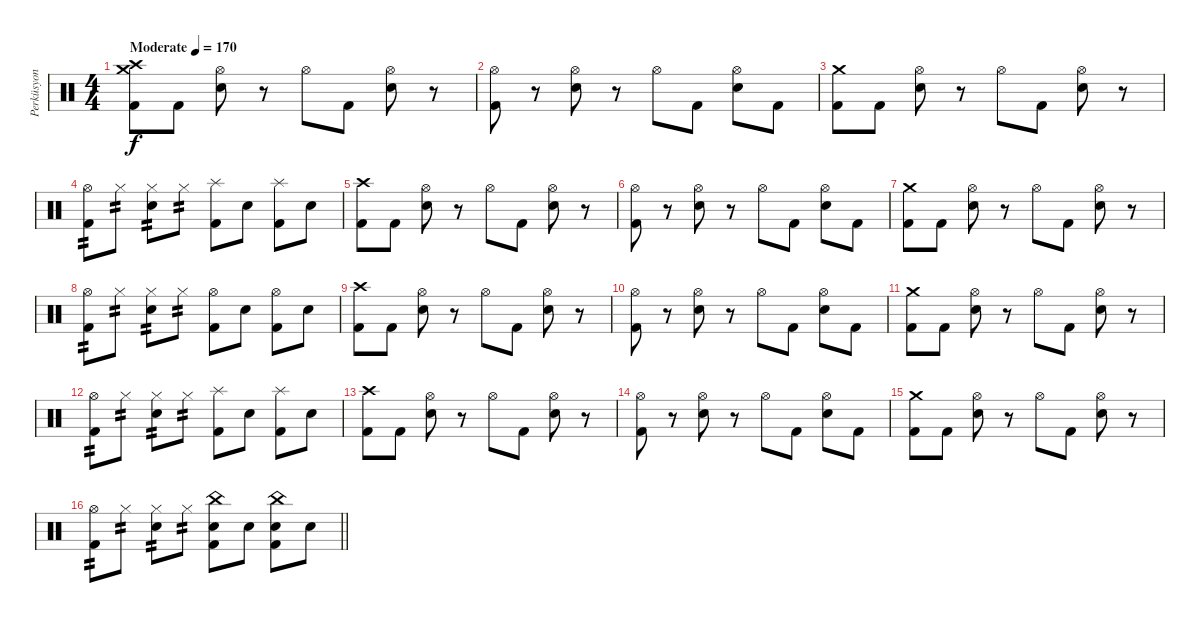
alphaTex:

\track ("Perküsyon" "Perküsyon") {instrument percussion}
\staff {score}
\articulation defaults
\ts (4 4)
\section ("" "")
\tempo (170 "Moderate")
\clef neutral
\ks c
("Crash high (hit)" "Crash medium (hit)" "Kick (hit) 2").8{dy f} "Kick (hit) 2".8 ("Hi-Hat (open)" "Snare (hit) 2").8 r.8 "Hi-Hat (open)".8 "Kick (hit) 2".8 ("Hi-Hat (open)" "Snare (hit) 2").8 r.8 |
("Hi-Hat (open)" "Kick (hit) 2").8 r.8 ("Hi-Hat (open)" "Snare (hit) 2").8 r.8 "Hi-Hat (open)".8 "Kick (hit) 2".8 ("Hi-Hat (open)" "Snare (hit) 2").8 "Kick (hit) 2".8 |
("Crash medium (hit)" "Kick (hit) 2").8 "Kick (hit) 2".8 ("Hi-Hat (open)" "Snare (hit) 2").8 r.8 "Hi-Hat (open)".8 "Kick (hit) 2".8 ("Hi-Hat (open)" "Snare (hit) 2").8 r.8 |
("Hi-Hat (open)" "Kick (hit) 2").8{tp 2} "Hi-Hat (closed)".8{tp 2} ("Hi-Hat (closed)" "Snare (hit) 2").8{tp 2} "Hi-Hat (closed)".8{tp 2} ("Splash (hit)" "Kick (hit) 2").8 "Snare (hit) 2".8 ("Splash (hit)" "Kick (hit) 2").8 "Snare (hit) 2".8 |
("Crash high (hit)" "Kick (hit) 2").8 "Kick (hit) 2".8 ("Hi-Hat (open)" "Snare (hit) 2").8 r.8 "Hi-Hat (open)".8 "Kick (hit) 2".8 ("Hi-Hat (open)" "Snare (hit) 2").8 r.8 |
("Hi-Hat (open)" "Kick (hit) 2").8 r.8 ("Hi-Hat (open)" "Snare (hit) 2").8 r.8 "Hi-Hat (open)".8 "Kick (hit) 2".8 ("Hi-Hat (open)" "Snare (hit) 2").8 "Kick (hit) 2".8 |
("Crash medium (hit)" "Kick (hit) 2").8 "Kick (hit) 2".8 ("Hi-Hat (open)" "Snare (hit) 2").8 r.8 "Hi-Hat (open)".8 "Kick (hit) 2".8 ("Hi-Hat (open)" "Snare (hit) 2").8 r.8 |
("Hi-Hat (open)" "Kick (hit) 2").8{tp 2} "Hi-Hat (closed)".8{tp 2} ("Hi-Hat (closed)" "Snare (hit) 2").8{tp 2} "Hi-Hat (closed)".8{tp 2} ("Hi-Hat (open)" "Kick (hit) 2").8 "Snare (hit) 2".8 ("Hi-Hat (open)" "Kick (hit) 2").8 "Snare (hit) 2".8 |
("Crash high (hit)" "Kick (hit) 2").8 "Kick (hit) 2".8 ("Hi-Hat (open)" "Snare (hit) 2").8 r.8 "Hi-Hat (open)".8 "Kick (hit) 2".8 ("Hi-Hat (open)" "Snare (hit) 2").8 r.8 |
("Hi-Hat (open)" "Kick (hit) 2").8 r.8 ("Hi-Hat (open)" "Snare (hit) 2").8 r.8 "Hi-Hat (open)".8 "Kick (hit) 2".8 ("Hi-Hat (open)" "Snare (hit) 2").8 "Kick (hit) 2".8 |
("Crash medium (hit)" "Kick (hit) 2").8 "Kick (hit) 2".8 ("Hi-Hat (open)" "Snare (hit) 2").8 r.8 "Hi-Hat (open)".8 "Kick (hit) 2".8 ("Hi-Hat (open)" "Snare (hit) 2").8 r.8 |
("Hi-Hat (open)" "Kick (hit) 2").8{tp 2} "Hi-Hat (closed)".8{tp 2} ("Hi-Hat (closed)" "Snare (hit) 2").8{tp 2} "Hi-Hat (closed)".8{tp 2} ("Splash (hit)" "Kick (hit) 2").8 "Snare (hit) 2".8 ("Splash (hit)" "Kick (hit) 2").8 "Snare (hit) 2".8 |
("Crash high (hit)" "Kick (hit) 2").8 "Kick (hit) 2".8 ("Hi-Hat (open)" "Snare (hit) 2").8 r.8 "Hi-Hat (open)".8 "Kick (hit) 2".8 ("Hi-Hat (open)" "Snare (hit) 2").8 r.8 |
("Hi-Hat (open)" "Kick (hit) 2").8 r.8 ("Hi-Hat (open)" "Snare (hit) 2").8 r.8 "Hi-Hat (open)".8 "Kick (hit) 2".8 ("Hi-Hat (open)" "Snare (hit) 2").8 "Kick (hit) 2".8 |
("Crash medium (hit)" "Kick (hit) 2").8 "Kick (hit) 2".8 ("Hi-Hat (open)" "Snare (hit) 2").8 r.8 "Hi-Hat (open)".8 "Kick (hit) 2".8 ("Hi-Hat (open)" "Snare (hit) 2").8 r.8 |
\barLineRight lightlight
("Hi-Hat (open)" "Kick (hit) 2").8{tp 2} "Hi-Hat (closed)".8{tp 2} ("Hi-Hat (closed)" "Snare (hit) 2").8{tp 2} "Hi-Hat (closed)".8{tp 2} ("China (hit)" "Snare (hit) 2" "Kick (hit) 2").8 "Snare (hit) 2".8 ("China (hit)" "Snare (hit) 2" "Kick (hit) 2").8 "Snare (hit) 2".8
